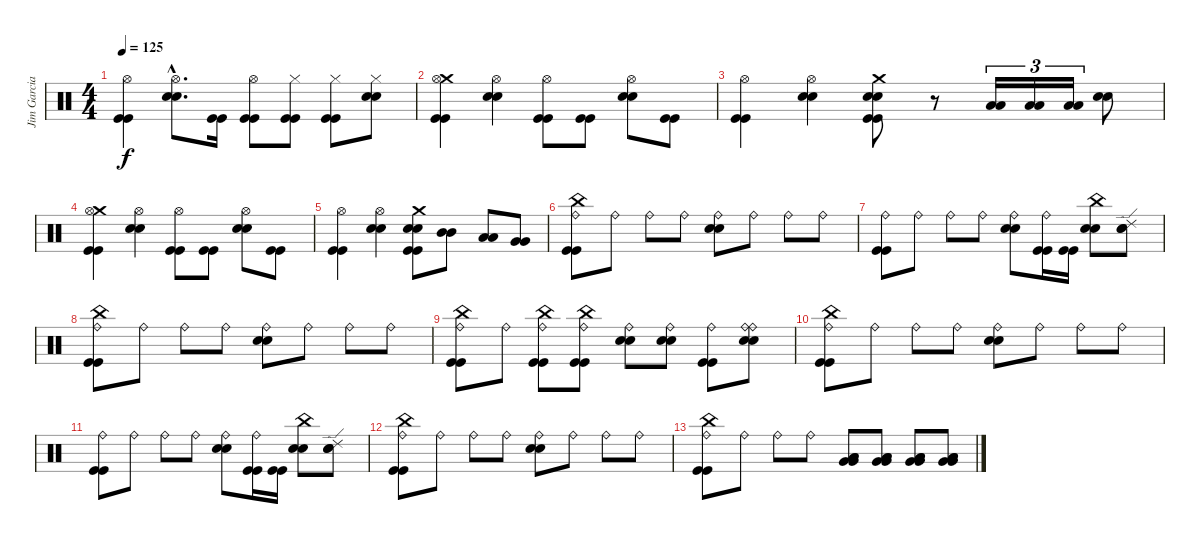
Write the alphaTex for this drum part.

\track ("Jim Garcia" "Jim Garcia") {instrument percussion}
\staff {score}
\articulation defaults
\ts (4 4)
\tempo 125
\clef neutral
\ks c
("Hi-Hat (open)" "Kick (hit)" "Kick (hit)").4{dy f} ("Snare (hit) 2"{hac} "Snare (hit) 2"{hac} "Hi-Hat (open)"{hac}).8{d} ("Kick (hit)" "Kick (hit)").16 ("Hi-Hat (open)" "Kick (hit)" "Kick (hit)").8 ("Hi-Hat (closed)" "Kick (hit)" "Kick (hit)").8 ("Hi-Hat (closed)" "Kick (hit)" "Kick (hit)").8 ("Snare (hit) 2" "Snare (hit) 2" "Hi-Hat (closed)").8 |
("Crash medium (hit)" "Hi-Hat (open)" "Kick (hit)" "Kick (hit)").4 ("Snare (hit) 2" "Snare (hit) 2" "Hi-Hat (open)").4 ("Hi-Hat (open)" "Kick (hit)" "Kick (hit)").8 ("Kick (hit)" "Kick (hit)").8 ("Snare (hit) 2" "Snare (hit) 2" "Hi-Hat (open)").8 ("Kick (hit)" "Kick (hit)").8 |
("Hi-Hat (open)" "Kick (hit)" "Kick (hit)").4 ("Snare (hit) 2" "Snare (hit) 2" "Hi-Hat (open)").4 ("Crash medium (hit)" "Snare (hit) 2" "Snare (hit) 2" "Kick (hit)" "Kick (hit)").8 r.8 ("Low Tom (hit)" "Low Tom (hit)").16{tu (3 2)} ("Low Tom (hit)" "Low Tom (hit)").16{tu (3 2)} ("Low Tom (hit)" "Low Tom (hit)").16{tu (3 2)} ("Snare (hit) 2" "Snare (hit) 2").8 |
("Crash medium (hit)" "Hi-Hat (open)" "Kick (hit)" "Kick (hit)").4 ("Snare (hit) 2" "Snare (hit) 2" "Hi-Hat (open)").4 ("Hi-Hat (open)" "Kick (hit)" "Kick (hit)").8 ("Kick (hit)" "Kick (hit)").8 ("Snare (hit) 2" "Snare (hit) 2" "Hi-Hat (open)").8 ("Kick (hit)" "Kick (hit)").8 |
("Hi-Hat (open)" "Kick (hit)" "Kick (hit)").4 ("Snare (hit) 2" "Snare (hit) 2" "Hi-Hat (open)").4 ("Crash medium (hit)" "Snare (hit) 2" "Snare (hit) 2" "Kick (hit)" "Kick (hit)").8 ("Mid Tom (hit)" "Mid Tom (hit)").8 ("Low Tom (hit)" "Low Tom (hit)").8 ("Very Low Tom (hit)" "Very Low Tom (hit)").8 |
("China (hit)" "Ride (bell)" "Kick (hit)" "Kick (hit)").8 "Ride (bell)".8 "Ride (bell)".8 "Ride (bell)".8 ("Snare (hit) 2" "Snare (hit) 2" "Ride (bell)").8 "Ride (bell)".8 "Ride (bell)".8 "Ride (bell)".8 |
("Ride (bell)" "Kick (hit)" "Kick (hit)").8 "Ride (bell)".8 "Ride (bell)".8 "Ride (bell)".8 ("Snare (hit) 2" "Snare (hit) 2" "Ride (bell)").8 ("Ride (bell)" "Kick (hit)" "Kick (hit)").16 ("Kick (hit)" "Kick (hit)").16 ("China (hit)" "Snare (hit) 2" "Snare (hit) 2").8 ("Ride (edge) 2" "Snare (hit) 2" "Snare (hit) 2").8 |
("China (hit)" "Ride (bell)" "Kick (hit)" "Kick (hit)").8 "Ride (bell)".8 "Ride (bell)".8 "Ride (bell)".8 ("Snare (hit) 2" "Snare (hit) 2" "Ride (bell)").8 "Ride (bell)".8 "Ride (bell)".8 "Ride (bell)".8 |
("China (hit)" "Ride (bell)" "Kick (hit)" "Kick (hit)").8 "Ride (bell)".8 ("China (hit)" "Ride (bell)" "Kick (hit)" "Kick (hit)").8 ("China (hit)" "Ride (bell)" "Kick (hit)" "Kick (hit)").8 ("Snare (hit) 2" "Snare (hit) 2" "Ride (bell)").8 ("Snare (hit) 2" "Snare (hit) 2" "Ride (bell)").8 ("Ride (bell)" "Kick (hit)" "Kick (hit)").8 ("Ride (bell)" "Snare (hit) 2" "Snare (hit) 2" "Ride (bell)").8 |
("China (hit)" "Ride (bell)" "Kick (hit)" "Kick (hit)").8 "Ride (bell)".8 "Ride (bell)".8 "Ride (bell)".8 ("Snare (hit) 2" "Snare (hit) 2" "Ride (bell)").8 "Ride (bell)".8 "Ride (bell)".8 "Ride (bell)".8 |
("Ride (bell)" "Kick (hit)" "Kick (hit)").8 "Ride (bell)".8 "Ride (bell)".8 "Ride (bell)".8 ("Snare (hit) 2" "Snare (hit) 2" "Ride (bell)").8 ("Ride (bell)" "Kick (hit)" "Kick (hit)").16 ("Kick (hit)" "Kick (hit)").16 ("China (hit)" "Snare (hit) 2" "Snare (hit) 2").8 ("Ride (edge) 2" "Snare (hit) 2" "Snare (hit) 2").8 |
("China (hit)" "Ride (bell)" "Kick (hit)" "Kick (hit)").8 "Ride (bell)".8 "Ride (bell)".8 "Ride (bell)".8 ("Snare (hit) 2" "Snare (hit) 2" "Ride (bell)").8 "Ride (bell)".8 "Ride (bell)".8 "Ride (bell)".8 |
("China (hit)" "Ride (bell)" "Kick (hit)" "Kick (hit)").8 "Ride (bell)".8 "Ride (bell)".8 "Ride (bell)".8 ("Very Low Tom (hit)" "Very Low Tom (hit)" "Low Floor Tom (hit)" "Low Floor Tom (hit)").8 ("Very Low Tom (hit)" "Very Low Tom (hit)" "Low Floor Tom (hit)" "Low Floor Tom (hit)").8 ("Very Low Tom (hit)" "Very Low Tom (hit)" "Low Floor Tom (hit)" "Low Floor Tom (hit)").8 ("Very Low Tom (hit)" "Very Low Tom (hit)" "Low Floor Tom (hit)" "Low Floor Tom (hit)").8
